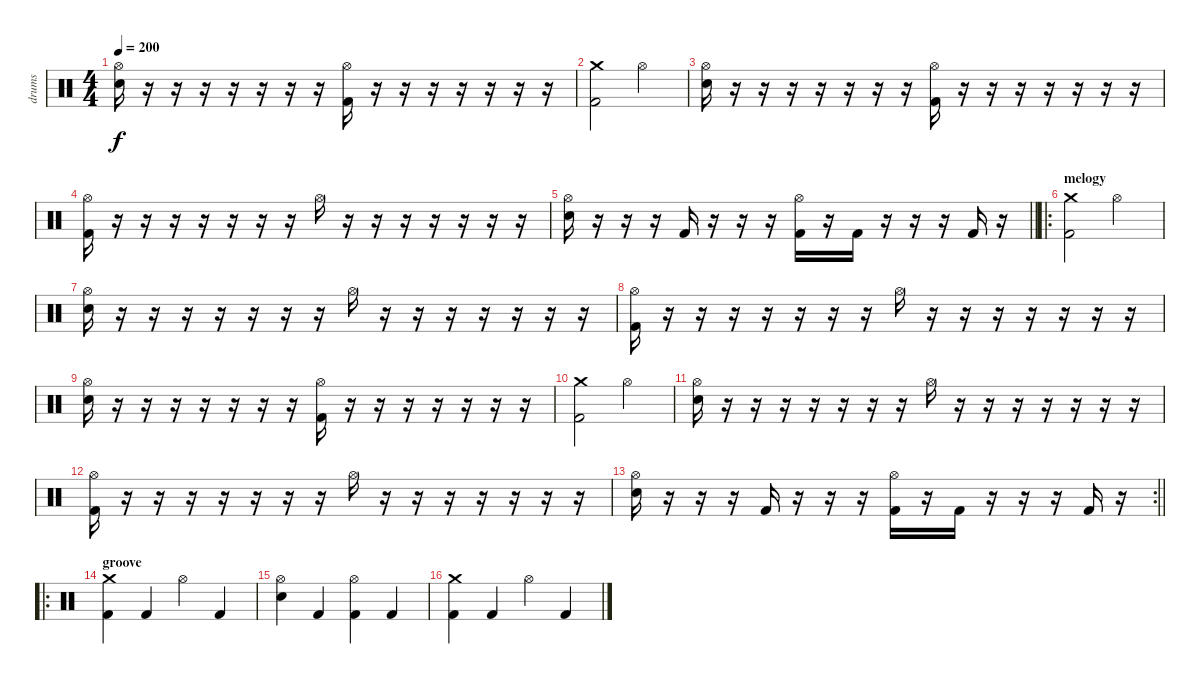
\track ("drums" "drums") {instrument percussion}
\staff {score}
\articulation defaults
\ts (4 4)
\tempo 200
\clef neutral
\ks c
("Hi-Hat (open)" "Electric Snare (hit)").16{dy f} r.16 r.16 r.16 r.16 r.16 r.16 r.16 ("Hi-Hat (open)" "Kick (hit) 2").16 r.16 r.16 r.16 r.16 r.16 r.16 r.16 |
("Crash medium (hit)" "Kick (hit) 2").2 "Hi-Hat (open)".2 |
("Hi-Hat (open)" "Electric Snare (hit)").16 r.16 r.16 r.16 r.16 r.16 r.16 r.16 ("Hi-Hat (open)" "Kick (hit) 2").16 r.16 r.16 r.16 r.16 r.16 r.16 r.16 |
("Hi-Hat (open)" "Kick (hit) 2").16 r.16 r.16 r.16 r.16 r.16 r.16 r.16 "Hi-Hat (open)".16 r.16 r.16 r.16 r.16 r.16 r.16 r.16 |
\barLineRight lightlight
("Hi-Hat (open)" "Electric Snare (hit)").16 r.16 r.16 r.16 "Kick (hit) 2".16 r.16 r.16 r.16 ("Hi-Hat (open)" "Kick (hit) 2").16 r.16 "Kick (hit) 2".16 r.16 r.16 r.16 "Kick (hit) 2".16 r.16 |
\ro
\section ("" "melogy")
("Crash medium (hit)" "Kick (hit) 2").2 "Hi-Hat (open)".2 |
("Hi-Hat (open)" "Electric Snare (hit)").16 r.16 r.16 r.16 r.16 r.16 r.16 r.16 "Hi-Hat (open)".16 r.16 r.16 r.16 r.16 r.16 r.16 r.16 |
("Hi-Hat (open)" "Kick (hit) 2").16 r.16 r.16 r.16 r.16 r.16 r.16 r.16 "Hi-Hat (open)".16 r.16 r.16 r.16 r.16 r.16 r.16 r.16 |
("Hi-Hat (open)" "Electric Snare (hit)").16 r.16 r.16 r.16 r.16 r.16 r.16 r.16 ("Hi-Hat (open)" "Kick (hit) 2").16 r.16 r.16 r.16 r.16 r.16 r.16 r.16 |
("Crash medium (hit)" "Kick (hit) 2").2 "Hi-Hat (open)".2 |
("Hi-Hat (open)" "Electric Snare (hit)").16 r.16 r.16 r.16 r.16 r.16 r.16 r.16 "Hi-Hat (open)".16 r.16 r.16 r.16 r.16 r.16 r.16 r.16 |
("Hi-Hat (open)" "Kick (hit) 2").16 r.16 r.16 r.16 r.16 r.16 r.16 r.16 "Hi-Hat (open)".16 r.16 r.16 r.16 r.16 r.16 r.16 r.16 |
\rc 2
\barLineRight lightlight
("Hi-Hat (open)" "Electric Snare (hit)").16 r.16 r.16 r.16 "Kick (hit) 2".16 r.16 r.16 r.16 ("Hi-Hat (open)" "Kick (hit) 2").16 r.16 "Kick (hit) 2".16 r.16 r.16 r.16 "Kick (hit) 2".16 r.16 |
\ro
\section ("" "groove")
("Crash medium (hit)" "Kick (hit) 2").4 "Kick (hit) 2".4 "Hi-Hat (open)".4 "Kick (hit) 2".4 |
("Hi-Hat (open)" "Electric Snare (hit)").4 "Kick (hit) 2".4 ("Hi-Hat (open)" "Kick (hit) 2").4 "Kick (hit) 2".4 |
("Crash medium (hit)" "Kick (hit) 2").4 "Kick (hit) 2".4 "Hi-Hat (open)".4 "Kick (hit) 2".4
